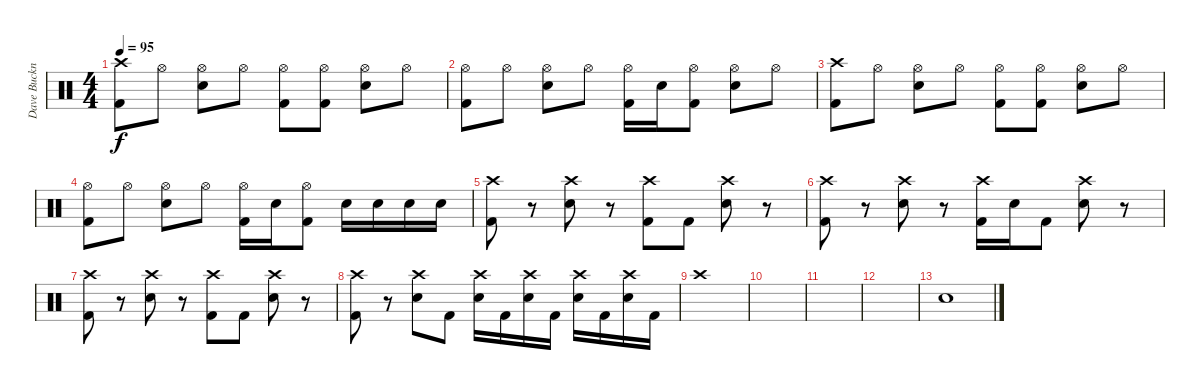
\track ("Dave Buckner " "Dave Buckn") {instrument percussion}
\staff {score}
\articulation defaults
\ts (4 4)
\tempo 95
\clef neutral
\ks c
("Crash high (hit)" "Kick (hit) 2").8{dy f} "Hi-Hat (open)".8 ("Hi-Hat (open)" "Snare (hit) 2").8 "Hi-Hat (open)".8 ("Hi-Hat (open)" "Kick (hit) 2").8 ("Hi-Hat (open)" "Kick (hit) 2").8 ("Hi-Hat (open)" "Snare (hit) 2").8 "Hi-Hat (open)".8 |
("Hi-Hat (open)" "Kick (hit) 2").8 "Hi-Hat (open)".8 ("Hi-Hat (open)" "Snare (hit) 2").8 "Hi-Hat (open)".8 ("Hi-Hat (open)" "Kick (hit) 2").16 "Snare (hit) 2".16 ("Hi-Hat (open)" "Kick (hit) 2").8 ("Hi-Hat (open)" "Snare (hit) 2").8 "Hi-Hat (open)".8 |
("Crash high (hit)" "Kick (hit) 2").8 "Hi-Hat (open)".8 ("Hi-Hat (open)" "Snare (hit) 2").8 "Hi-Hat (open)".8 ("Hi-Hat (open)" "Kick (hit) 2").8 ("Hi-Hat (open)" "Kick (hit) 2").8 ("Hi-Hat (open)" "Snare (hit) 2").8 "Hi-Hat (open)".8 |
("Hi-Hat (open)" "Kick (hit) 2").8 "Hi-Hat (open)".8 ("Hi-Hat (open)" "Snare (hit) 2").8 "Hi-Hat (open)".8 ("Hi-Hat (open)" "Kick (hit) 2").16 "Snare (hit) 2".16 ("Hi-Hat (open)" "Kick (hit) 2").8 "Snare (hit) 2".16 "Snare (hit) 2".16 "Snare (hit) 2".16 "Snare (hit) 2".16 |
("Crash high (hit)" "Kick (hit) 2").8 r.8 ("Crash high (hit)" "Snare (hit) 2").8 r.8 ("Crash high (hit)" "Kick (hit) 2").8 "Kick (hit) 2".8 ("Crash high (hit)" "Snare (hit) 2").8 r.8 |
("Crash high (hit)" "Kick (hit) 2").8 r.8 ("Crash high (hit)" "Snare (hit) 2").8 r.8 ("Crash high (hit)" "Kick (hit) 2").16 "Snare (hit) 2".16 "Kick (hit) 2".8 ("Crash high (hit)" "Snare (hit) 2").8 r.8 |
("Crash high (hit)" "Kick (hit) 2").8 r.8 ("Crash high (hit)" "Snare (hit) 2").8 r.8 ("Crash high (hit)" "Kick (hit) 2").8 "Kick (hit) 2".8 ("Crash high (hit)" "Snare (hit) 2").8 r.8 |
("Crash high (hit)" "Kick (hit) 2").8 r.8 ("Crash high (hit)" "Snare (hit) 2").8 "Kick (hit) 2".8 ("Crash high (hit)" "Snare (hit) 2").16 "Kick (hit) 2".16 ("Crash high (hit)" "Snare (hit) 2").16 "Kick (hit) 2".16 ("Crash high (hit)" "Snare (hit) 2").16 "Kick (hit) 2".16 ("Crash high (hit)" "Snare (hit) 2").16 "Kick (hit) 2".16 |
"Crash high (hit)".1 |
|
|
|
"Snare (hit)".1
